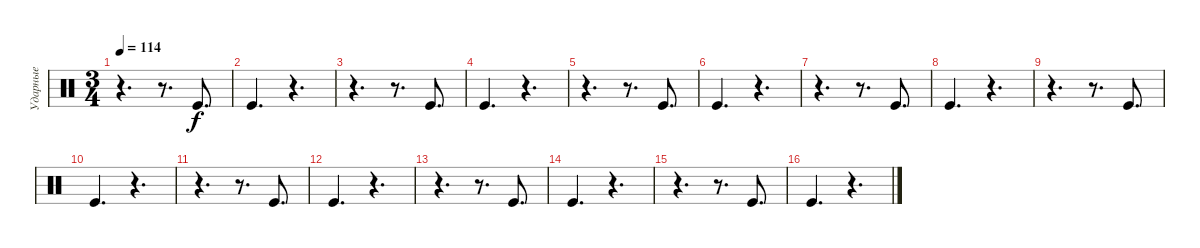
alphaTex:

\track ("Ударные" "Ударные") {instrument percussion}
\staff {score}
\articulation defaults
\ts (3 4)
\tempo 114
\clef neutral
\ks c
r.4{d dy f} r.8{d} "Kick (hit)".8{d} |
"Kick (hit)".4{d} r.4{d} |
r.4{d volume 7} r.8{d} "Kick (hit)".8{d} |
"Kick (hit)".4{d} r.4{d} |
r.4{d} r.8{d} "Kick (hit)".8{d} |
"Kick (hit)".4{d} r.4{d} |
r.4{d} r.8{d} "Kick (hit)".8{d} |
"Kick (hit)".4{d} r.4{d} |
r.4{d} r.8{d} "Kick (hit)".8{d} |
"Kick (hit)".4{d} r.4{d} |
r.4{d volume 7} r.8{d} "Kick (hit)".8{d} |
"Kick (hit)".4{d} r.4{d} |
r.4{d} r.8{d} "Kick (hit)".8{d} |
"Kick (hit)".4{d} r.4{d} |
r.4{d} r.8{d} "Kick (hit)".8{d} |
"Kick (hit)".4{d} r.4{d}
